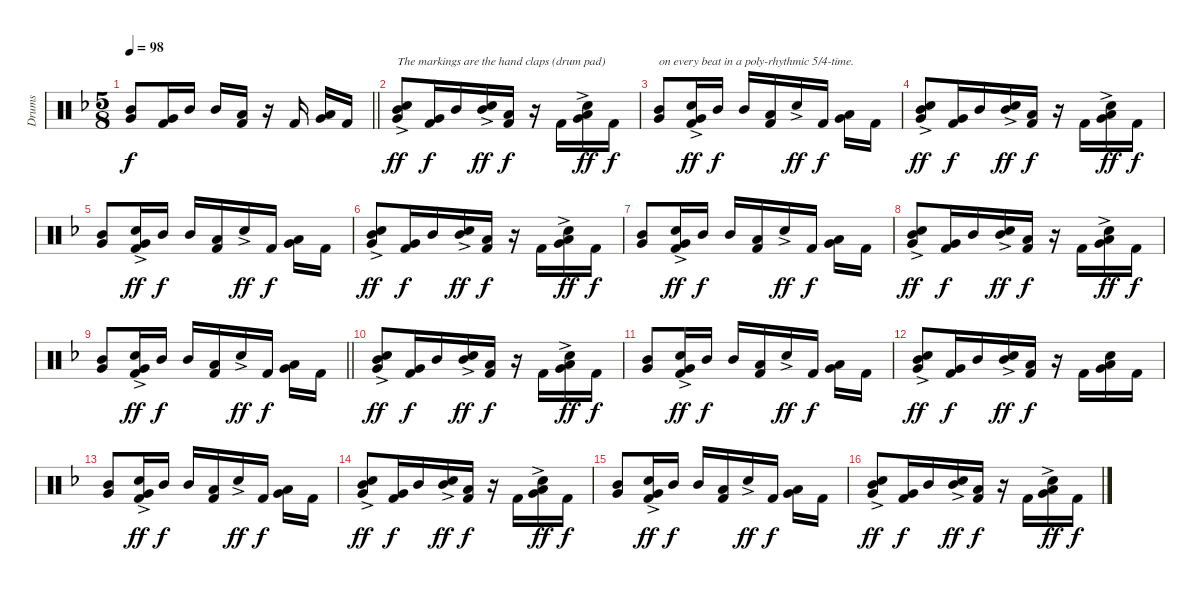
\track ("Drums" "Drums") {instrument percussion}
\staff {score}
\articulation defaults
\ts (5 8)
\tempo 98
\clef neutral
\barLineRight lightlight
\ks dminor
("Mid Tom (hit)" "Very Low Tom (hit)").8{dy f beam merge} ("Very Low Tom (hit)" "Kick (hit) 2").16 "Mid Tom (hit)".16{beam split} "Mid Tom (hit)".16 ("Low Tom (hit)" "Kick (hit) 2").16 r.16 "Kick (hit) 2".16{beam split} ("Low Tom (hit)" "Very Low Tom (hit)").16 "Kick (hit) 2".16 |
("Hand Clap (hit)"{ac} "Mid Tom (hit)" "Very Low Tom (hit)").8{txt "The markings are the hand claps (drum pad)" dy ff beam merge} ("Very Low Tom (hit)" "Kick (hit) 2").16{dy f} "Mid Tom (hit)".16 ("Hand Clap (hit)"{ac} "Mid Tom (hit)").16{dy ff} ("Low Tom (hit)" "Kick (hit) 2").16{dy f} r.16 "Kick (hit) 2".16{beam Down} ("Hand Clap (hit)"{ac} "Low Tom (hit)" "Very Low Tom (hit)").16{dy ff beam Down} "Kick (hit) 2".16{dy f beam Down} |
("Mid Tom (hit)" "Very Low Tom (hit)").8{txt "on every beat in a poly-rhythmic 5/4-time." beam merge} ("Hand Clap (hit)"{ac} "Very Low Tom (hit)" "Kick (hit) 2").16{dy ff} "Mid Tom (hit)".16{dy f beam split} "Mid Tom (hit)".16 ("Low Tom (hit)" "Kick (hit) 2").16{beam merge} "Hand Clap (hit)"{ac}.16{dy ff} "Kick (hit) 2".16{dy f beam split} ("Low Tom (hit)" "Very Low Tom (hit)").16{beam Down} "Kick (hit) 2".16{beam Down} |
("Hand Clap (hit)"{ac} "Mid Tom (hit)" "Very Low Tom (hit)").8{dy ff beam merge} ("Very Low Tom (hit)" "Kick (hit) 2").16{dy f} "Mid Tom (hit)".16 ("Hand Clap (hit)"{ac} "Mid Tom (hit)").16{dy ff} ("Low Tom (hit)" "Kick (hit) 2").16{dy f} r.16 "Kick (hit) 2".16{beam Down} ("Hand Clap (hit)"{ac} "Low Tom (hit)" "Very Low Tom (hit)").16{dy ff beam Down} "Kick (hit) 2".16{dy f beam Down} |
("Mid Tom (hit)" "Very Low Tom (hit)").8{beam merge} ("Hand Clap (hit)"{ac} "Very Low Tom (hit)" "Kick (hit) 2").16{dy ff} "Mid Tom (hit)".16{dy f beam split} "Mid Tom (hit)".16 ("Low Tom (hit)" "Kick (hit) 2").16{beam merge} "Hand Clap (hit)"{ac}.16{dy ff} "Kick (hit) 2".16{dy f beam split} ("Low Tom (hit)" "Very Low Tom (hit)").16{beam Down} "Kick (hit) 2".16{beam Down} |
("Hand Clap (hit)"{ac} "Mid Tom (hit)" "Very Low Tom (hit)").8{dy ff beam merge} ("Very Low Tom (hit)" "Kick (hit) 2").16{dy f} "Mid Tom (hit)".16 ("Hand Clap (hit)"{ac} "Mid Tom (hit)").16{dy ff} ("Low Tom (hit)" "Kick (hit) 2").16{dy f} r.16 "Kick (hit) 2".16{beam Down} ("Hand Clap (hit)"{ac} "Low Tom (hit)" "Very Low Tom (hit)").16{dy ff beam Down} "Kick (hit) 2".16{dy f beam Down} |
("Mid Tom (hit)" "Very Low Tom (hit)").8{beam merge} ("Hand Clap (hit)"{ac} "Very Low Tom (hit)" "Kick (hit) 2").16{dy ff} "Mid Tom (hit)".16{dy f beam split} "Mid Tom (hit)".16 ("Low Tom (hit)" "Kick (hit) 2").16{beam merge} "Hand Clap (hit)"{ac}.16{dy ff} "Kick (hit) 2".16{dy f beam split} ("Low Tom (hit)" "Very Low Tom (hit)").16{beam Down} "Kick (hit) 2".16{beam Down} |
("Hand Clap (hit)"{ac} "Mid Tom (hit)" "Very Low Tom (hit)").8{dy ff beam merge} ("Very Low Tom (hit)" "Kick (hit) 2").16{dy f} "Mid Tom (hit)".16 ("Hand Clap (hit)"{ac} "Mid Tom (hit)").16{dy ff} ("Low Tom (hit)" "Kick (hit) 2").16{dy f} r.16 "Kick (hit) 2".16{beam Down} ("Hand Clap (hit)"{ac} "Low Tom (hit)" "Very Low Tom (hit)").16{dy ff beam Down} "Kick (hit) 2".16{dy f beam Down} |
\barLineRight lightlight
("Mid Tom (hit)" "Very Low Tom (hit)").8{beam merge} ("Hand Clap (hit)"{ac} "Very Low Tom (hit)" "Kick (hit) 2").16{dy ff} "Mid Tom (hit)".16{dy f beam split} "Mid Tom (hit)".16 ("Low Tom (hit)" "Kick (hit) 2").16{beam merge} "Hand Clap (hit)"{ac}.16{dy ff} "Kick (hit) 2".16{dy f beam split} ("Low Tom (hit)" "Very Low Tom (hit)").16{beam Down} "Kick (hit) 2".16{beam Down} |
("Hand Clap (hit)"{ac} "Mid Tom (hit)" "Very Low Tom (hit)").8{dy ff beam merge} ("Very Low Tom (hit)" "Kick (hit) 2").16{dy f} "Mid Tom (hit)".16 ("Hand Clap (hit)"{ac} "Mid Tom (hit)").16{dy ff} ("Low Tom (hit)" "Kick (hit) 2").16{dy f} r.16 "Kick (hit) 2".16{beam Down} ("Hand Clap (hit)"{ac} "Low Tom (hit)" "Very Low Tom (hit)").16{dy ff beam Down} "Kick (hit) 2".16{dy f beam Down} |
("Mid Tom (hit)" "Very Low Tom (hit)").8{beam merge} ("Hand Clap (hit)"{ac} "Very Low Tom (hit)" "Kick (hit) 2").16{dy ff} "Mid Tom (hit)".16{dy f beam split} "Mid Tom (hit)".16 ("Low Tom (hit)" "Kick (hit) 2").16{beam merge} "Hand Clap (hit)"{ac}.16{dy ff} "Kick (hit) 2".16{dy f beam split} ("Low Tom (hit)" "Very Low Tom (hit)").16{beam Down} "Kick (hit) 2".16{beam Down} |
("Hand Clap (hit)"{ac} "Mid Tom (hit)" "Very Low Tom (hit)").8{dy ff beam merge} ("Very Low Tom (hit)" "Kick (hit) 2").16{dy f} "Mid Tom (hit)".16 ("Hand Clap (hit)"{ac} "Mid Tom (hit)").16{dy ff} ("Low Tom (hit)" "Kick (hit) 2").16{dy f} r.16 "Kick (hit) 2".16{beam Down} ("Hand Clap (hit)" "Low Tom (hit)" "Very Low Tom (hit)").16{beam Down} "Kick (hit) 2".16{beam Down} |
("Mid Tom (hit)" "Very Low Tom (hit)").8{beam merge} ("Hand Clap (hit)"{ac} "Very Low Tom (hit)" "Kick (hit) 2").16{dy ff} "Mid Tom (hit)".16{dy f beam split} "Mid Tom (hit)".16 ("Low Tom (hit)" "Kick (hit) 2").16{beam merge} "Hand Clap (hit)"{ac}.16{dy ff} "Kick (hit) 2".16{dy f beam split} ("Low Tom (hit)" "Very Low Tom (hit)").16{beam Down} "Kick (hit) 2".16{beam Down} |
("Hand Clap (hit)"{ac} "Mid Tom (hit)" "Very Low Tom (hit)").8{dy ff beam merge} ("Very Low Tom (hit)" "Kick (hit) 2").16{dy f} "Mid Tom (hit)".16 ("Hand Clap (hit)"{ac} "Mid Tom (hit)").16{dy ff} ("Low Tom (hit)" "Kick (hit) 2").16{dy f} r.16 "Kick (hit) 2".16{beam Down} ("Hand Clap (hit)"{ac} "Low Tom (hit)" "Very Low Tom (hit)").16{dy ff beam Down} "Kick (hit) 2".16{dy f beam Down} |
("Mid Tom (hit)" "Very Low Tom (hit)").8{beam merge} ("Hand Clap (hit)"{ac} "Very Low Tom (hit)" "Kick (hit) 2").16{dy ff} "Mid Tom (hit)".16{dy f beam split} "Mid Tom (hit)".16 ("Low Tom (hit)" "Kick (hit) 2").16{beam merge} "Hand Clap (hit)"{ac}.16{dy ff} "Kick (hit) 2".16{dy f beam split} ("Low Tom (hit)" "Very Low Tom (hit)").16{beam Down} "Kick (hit) 2".16{beam Down} |
("Hand Clap (hit)"{ac} "Mid Tom (hit)" "Very Low Tom (hit)").8{dy ff beam merge} ("Very Low Tom (hit)" "Kick (hit) 2").16{dy f} "Mid Tom (hit)".16 ("Hand Clap (hit)"{ac} "Mid Tom (hit)").16{dy ff} ("Low Tom (hit)" "Kick (hit) 2").16{dy f} r.16 "Kick (hit) 2".16{beam Down} ("Hand Clap (hit)"{ac} "Low Tom (hit)" "Very Low Tom (hit)").16{dy ff beam Down} "Kick (hit) 2".16{dy f beam Down}
